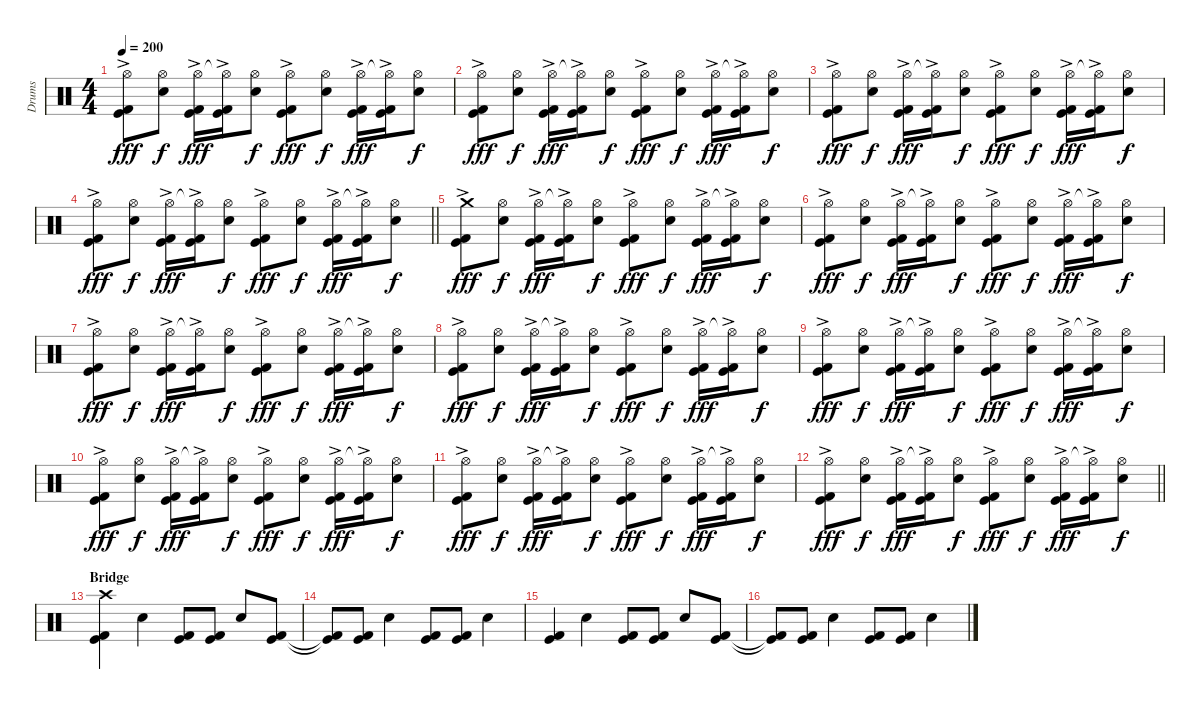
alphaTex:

\track ("Drums" "Drums") {instrument percussion}
\staff {score}
\articulation defaults
\ts (4 4)
\tempo 200
\clef neutral
\ks c
("Hi-Hat (open)" "Kick (hit)" "Kick (hit) 2"{ac}).8{dy fff} ("Hi-Hat (open)" "Electric Snare (hit)").8{dy f} ("Hi-Hat (open)" "Kick (hit)" "Kick (hit) 2"{ac}).16{dy fff} ("Hi-Hat (open)"{t} "Kick (hit)" "Kick (hit) 2"{ac}).16 ("Hi-Hat (open)" "Electric Snare (hit)").8{dy f} ("Hi-Hat (open)" "Kick (hit)" "Kick (hit) 2"{ac}).8{dy fff} ("Hi-Hat (open)" "Electric Snare (hit)").8{dy f} ("Hi-Hat (open)" "Kick (hit)" "Kick (hit) 2"{ac}).16{dy fff} ("Hi-Hat (open)"{t} "Kick (hit)" "Kick (hit) 2"{ac}).16 ("Hi-Hat (open)" "Electric Snare (hit)").8{dy f} |
("Hi-Hat (open)" "Kick (hit)" "Kick (hit) 2"{ac}).8{dy fff} ("Hi-Hat (open)" "Electric Snare (hit)").8{dy f} ("Hi-Hat (open)" "Kick (hit)" "Kick (hit) 2"{ac}).16{dy fff} ("Hi-Hat (open)"{t} "Kick (hit)" "Kick (hit) 2"{ac}).16 ("Hi-Hat (open)" "Electric Snare (hit)").8{dy f} ("Hi-Hat (open)" "Kick (hit)" "Kick (hit) 2"{ac}).8{dy fff} ("Hi-Hat (open)" "Electric Snare (hit)").8{dy f} ("Hi-Hat (open)" "Kick (hit)" "Kick (hit) 2"{ac}).16{dy fff} ("Hi-Hat (open)"{t} "Kick (hit)" "Kick (hit) 2"{ac}).16 ("Hi-Hat (open)" "Electric Snare (hit)").8{dy f} |
("Hi-Hat (open)" "Kick (hit)" "Kick (hit) 2"{ac}).8{dy fff} ("Hi-Hat (open)" "Electric Snare (hit)").8{dy f} ("Hi-Hat (open)" "Kick (hit)" "Kick (hit) 2"{ac}).16{dy fff} ("Hi-Hat (open)"{t} "Kick (hit)" "Kick (hit) 2"{ac}).16 ("Hi-Hat (open)" "Electric Snare (hit)").8{dy f} ("Hi-Hat (open)" "Kick (hit)" "Kick (hit) 2"{ac}).8{dy fff} ("Hi-Hat (open)" "Electric Snare (hit)").8{dy f} ("Hi-Hat (open)" "Kick (hit)" "Kick (hit) 2"{ac}).16{dy fff} ("Hi-Hat (open)"{t} "Kick (hit)" "Kick (hit) 2"{ac}).16 ("Hi-Hat (open)" "Electric Snare (hit)").8{dy f} |
\barLineRight lightlight
("Hi-Hat (open)" "Kick (hit)" "Kick (hit) 2"{ac}).8{dy fff} ("Hi-Hat (open)" "Electric Snare (hit)").8{dy f} ("Hi-Hat (open)" "Kick (hit)" "Kick (hit) 2"{ac}).16{dy fff} ("Hi-Hat (open)"{t} "Kick (hit)" "Kick (hit) 2"{ac}).16 ("Hi-Hat (open)" "Electric Snare (hit)").8{dy f} ("Hi-Hat (open)" "Kick (hit)" "Kick (hit) 2"{ac}).8{dy fff} ("Hi-Hat (open)" "Electric Snare (hit)").8{dy f} ("Hi-Hat (open)" "Kick (hit)" "Kick (hit) 2"{ac}).16{dy fff} ("Hi-Hat (open)"{t} "Kick (hit)" "Kick (hit) 2"{ac}).16 ("Hi-Hat (open)" "Electric Snare (hit)").8{dy f} |
("Crash medium (hit)" "Kick (hit)" "Kick (hit) 2"{ac}).8{dy fff} ("Hi-Hat (open)" "Electric Snare (hit)").8{dy f} ("Hi-Hat (open)" "Kick (hit)" "Kick (hit) 2"{ac}).16{dy fff} ("Hi-Hat (open)"{t} "Kick (hit)" "Kick (hit) 2"{ac}).16 ("Hi-Hat (open)" "Electric Snare (hit)").8{dy f} ("Hi-Hat (open)" "Kick (hit)" "Kick (hit) 2"{ac}).8{dy fff} ("Hi-Hat (open)" "Electric Snare (hit)").8{dy f} ("Hi-Hat (open)" "Kick (hit)" "Kick (hit) 2"{ac}).16{dy fff} ("Hi-Hat (open)"{t} "Kick (hit)" "Kick (hit) 2"{ac}).16 ("Hi-Hat (open)" "Electric Snare (hit)").8{dy f} |
("Hi-Hat (open)" "Kick (hit)" "Kick (hit) 2"{ac}).8{dy fff} ("Hi-Hat (open)" "Electric Snare (hit)").8{dy f} ("Hi-Hat (open)" "Kick (hit)" "Kick (hit) 2"{ac}).16{dy fff} ("Hi-Hat (open)"{t} "Kick (hit)" "Kick (hit) 2"{ac}).16 ("Hi-Hat (open)" "Electric Snare (hit)").8{dy f} ("Hi-Hat (open)" "Kick (hit)" "Kick (hit) 2"{ac}).8{dy fff} ("Hi-Hat (open)" "Electric Snare (hit)").8{dy f} ("Hi-Hat (open)" "Kick (hit)" "Kick (hit) 2"{ac}).16{dy fff} ("Hi-Hat (open)"{t} "Kick (hit)" "Kick (hit) 2"{ac}).16 ("Hi-Hat (open)" "Electric Snare (hit)").8{dy f} |
("Hi-Hat (open)" "Kick (hit)" "Kick (hit) 2"{ac}).8{dy fff} ("Hi-Hat (open)" "Electric Snare (hit)").8{dy f} ("Hi-Hat (open)" "Kick (hit)" "Kick (hit) 2"{ac}).16{dy fff} ("Hi-Hat (open)"{t} "Kick (hit)" "Kick (hit) 2"{ac}).16 ("Hi-Hat (open)" "Electric Snare (hit)").8{dy f} ("Hi-Hat (open)" "Kick (hit)" "Kick (hit) 2"{ac}).8{dy fff} ("Hi-Hat (open)" "Electric Snare (hit)").8{dy f} ("Hi-Hat (open)" "Kick (hit)" "Kick (hit) 2"{ac}).16{dy fff} ("Hi-Hat (open)"{t} "Kick (hit)" "Kick (hit) 2"{ac}).16 ("Hi-Hat (open)" "Electric Snare (hit)").8{dy f} |
("Hi-Hat (open)" "Kick (hit)" "Kick (hit) 2"{ac}).8{dy fff} ("Hi-Hat (open)" "Electric Snare (hit)").8{dy f} ("Hi-Hat (open)" "Kick (hit)" "Kick (hit) 2"{ac}).16{dy fff} ("Hi-Hat (open)"{t} "Kick (hit)" "Kick (hit) 2"{ac}).16 ("Hi-Hat (open)" "Electric Snare (hit)").8{dy f} ("Hi-Hat (open)" "Kick (hit)" "Kick (hit) 2"{ac}).8{dy fff} ("Hi-Hat (open)" "Electric Snare (hit)").8{dy f} ("Hi-Hat (open)" "Kick (hit)" "Kick (hit) 2"{ac}).16{dy fff} ("Hi-Hat (open)"{t} "Kick (hit)" "Kick (hit) 2"{ac}).16 ("Hi-Hat (open)" "Electric Snare (hit)").8{dy f} |
("Hi-Hat (open)" "Kick (hit)" "Kick (hit) 2"{ac}).8{dy fff} ("Hi-Hat (open)" "Electric Snare (hit)").8{dy f} ("Hi-Hat (open)" "Kick (hit)" "Kick (hit) 2"{ac}).16{dy fff} ("Hi-Hat (open)"{t} "Kick (hit)" "Kick (hit) 2"{ac}).16 ("Hi-Hat (open)" "Electric Snare (hit)").8{dy f} ("Hi-Hat (open)" "Kick (hit)" "Kick (hit) 2"{ac}).8{dy fff} ("Hi-Hat (open)" "Electric Snare (hit)").8{dy f} ("Hi-Hat (open)" "Kick (hit)" "Kick (hit) 2"{ac}).16{dy fff} ("Hi-Hat (open)"{t} "Kick (hit)" "Kick (hit) 2"{ac}).16 ("Hi-Hat (open)" "Electric Snare (hit)").8{dy f} |
("Hi-Hat (open)" "Kick (hit)" "Kick (hit) 2"{ac}).8{dy fff} ("Hi-Hat (open)" "Electric Snare (hit)").8{dy f} ("Hi-Hat (open)" "Kick (hit)" "Kick (hit) 2"{ac}).16{dy fff} ("Hi-Hat (open)"{t} "Kick (hit)" "Kick (hit) 2"{ac}).16 ("Hi-Hat (open)" "Electric Snare (hit)").8{dy f} ("Hi-Hat (open)" "Kick (hit)" "Kick (hit) 2"{ac}).8{dy fff} ("Hi-Hat (open)" "Electric Snare (hit)").8{dy f} ("Hi-Hat (open)" "Kick (hit)" "Kick (hit) 2"{ac}).16{dy fff} ("Hi-Hat (open)"{t} "Kick (hit)" "Kick (hit) 2"{ac}).16 ("Hi-Hat (open)" "Electric Snare (hit)").8{dy f} |
("Hi-Hat (open)" "Kick (hit)" "Kick (hit) 2"{ac}).8{dy fff} ("Hi-Hat (open)" "Electric Snare (hit)").8{dy f} ("Hi-Hat (open)" "Kick (hit)" "Kick (hit) 2"{ac}).16{dy fff} ("Hi-Hat (open)"{t} "Kick (hit)" "Kick (hit) 2"{ac}).16 ("Hi-Hat (open)" "Electric Snare (hit)").8{dy f} ("Hi-Hat (open)" "Kick (hit)" "Kick (hit) 2"{ac}).8{dy fff} ("Hi-Hat (open)" "Electric Snare (hit)").8{dy f} ("Hi-Hat (open)" "Kick (hit)" "Kick (hit) 2"{ac}).16{dy fff} ("Hi-Hat (open)"{t} "Kick (hit)" "Kick (hit) 2"{ac}).16 ("Hi-Hat (open)" "Electric Snare (hit)").8{dy f} |
\barLineRight lightlight
("Hi-Hat (open)" "Kick (hit)" "Kick (hit) 2"{ac}).8{dy fff} ("Hi-Hat (open)" "Electric Snare (hit)").8{dy f} ("Hi-Hat (open)" "Kick (hit)" "Kick (hit) 2"{ac}).16{dy fff} ("Hi-Hat (open)"{t} "Kick (hit)" "Kick (hit) 2"{ac}).16 ("Hi-Hat (open)" "Electric Snare (hit)").8{dy f} ("Hi-Hat (open)" "Kick (hit)" "Kick (hit) 2"{ac}).8{dy fff} ("Hi-Hat (open)" "Electric Snare (hit)").8{dy f} ("Hi-Hat (open)" "Kick (hit)" "Kick (hit) 2"{ac}).16{dy fff} ("Hi-Hat (open)"{t} "Kick (hit)" "Kick (hit) 2"{ac}).16 ("Hi-Hat (open)" "Electric Snare (hit)").8{dy f} |
\section ("" "Bridge")
("Crash high (hit)" "Kick (hit)" "Kick (hit) 2").4 "Electric Snare (hit)".4 ("Kick (hit)" "Kick (hit) 2").8 ("Kick (hit)" "Kick (hit) 2").8 "Electric Snare (hit)".8 ("Kick (hit)" "Kick (hit) 2").8 |
("Kick (hit)"{t} "Kick (hit) 2"{t}).8 ("Kick (hit)" "Kick (hit) 2").8 "Electric Snare (hit)".4 ("Kick (hit)" "Kick (hit) 2").8 ("Kick (hit)" "Kick (hit) 2").8 "Electric Snare (hit)".4 |
("Kick (hit)" "Kick (hit) 2").4 "Electric Snare (hit)".4 ("Kick (hit)" "Kick (hit) 2").8 ("Kick (hit)" "Kick (hit) 2").8 "Electric Snare (hit)".8 ("Kick (hit)" "Kick (hit) 2").8 |
("Kick (hit)"{t} "Kick (hit) 2"{t}).8 ("Kick (hit)" "Kick (hit) 2").8 "Electric Snare (hit)".4 ("Kick (hit)" "Kick (hit) 2").8 ("Kick (hit)" "Kick (hit) 2").8 "Electric Snare (hit)".4
